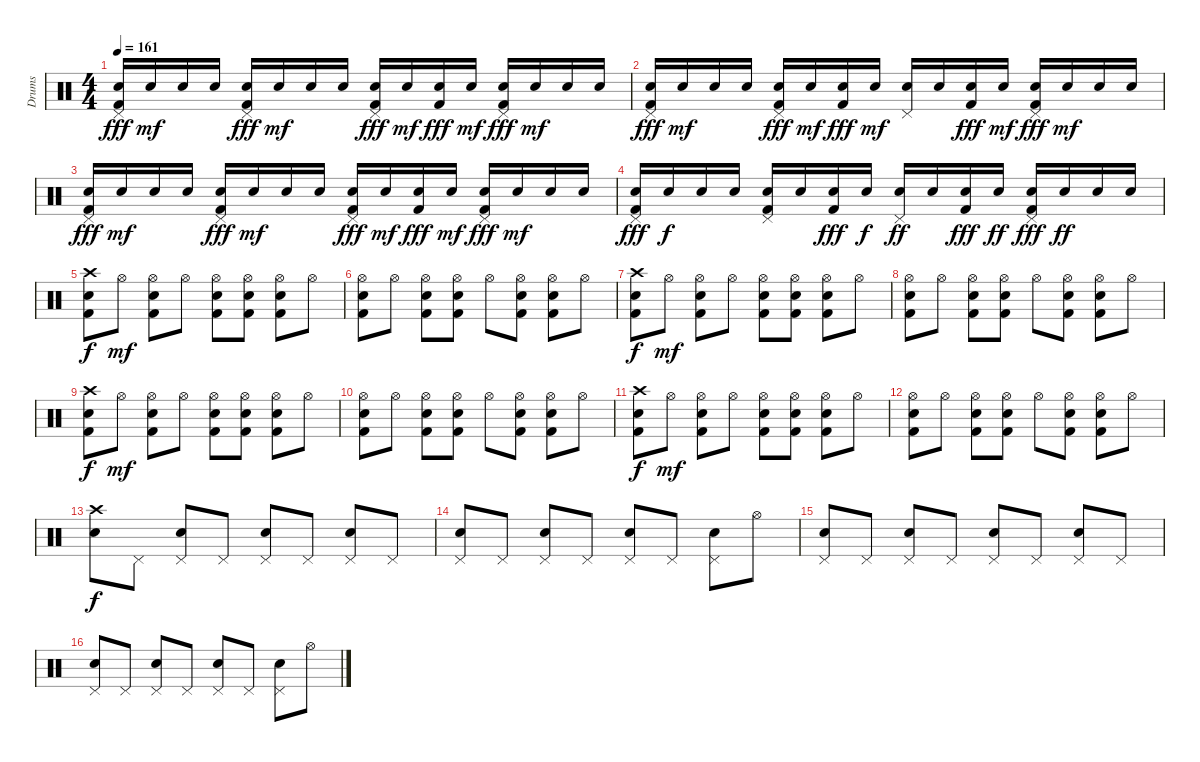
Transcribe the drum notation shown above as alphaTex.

\track ("Drums" "Drums") {instrument percussion}
\staff {score}
\articulation defaults
\ts (4 4)
\tempo 161
\clef neutral
\ks c
("Pedal Hi-Hat (hit)" "Electric Snare (hit)" "Kick (hit) 2").16{dy fff} "Electric Snare (hit)".16{dy mf} "Electric Snare (hit)".16 "Electric Snare (hit)".16 ("Pedal Hi-Hat (hit)" "Electric Snare (hit)" "Kick (hit) 2").16{dy fff} "Electric Snare (hit)".16{dy mf} "Electric Snare (hit)".16 "Electric Snare (hit)".16 ("Pedal Hi-Hat (hit)" "Electric Snare (hit)" "Kick (hit) 2").16{dy fff} "Electric Snare (hit)".16{dy mf} ("Electric Snare (hit)" "Kick (hit) 2").16{dy fff} "Electric Snare (hit)".16{dy mf} ("Pedal Hi-Hat (hit)" "Electric Snare (hit)" "Kick (hit) 2").16{dy fff} "Electric Snare (hit)".16{dy mf} "Electric Snare (hit)".16 "Electric Snare (hit)".16 |
("Pedal Hi-Hat (hit)" "Electric Snare (hit)" "Kick (hit) 2").16{dy fff} "Electric Snare (hit)".16{dy mf} "Electric Snare (hit)".16 "Electric Snare (hit)".16 ("Pedal Hi-Hat (hit)" "Electric Snare (hit)" "Kick (hit) 2").16{dy fff} "Electric Snare (hit)".16{dy mf} ("Electric Snare (hit)" "Kick (hit) 2").16{dy fff} "Electric Snare (hit)".16{dy mf} ("Pedal Hi-Hat (hit)" "Electric Snare (hit)").16 "Electric Snare (hit)".16 ("Electric Snare (hit)" "Kick (hit) 2").16{dy fff} "Electric Snare (hit)".16{dy mf} ("Pedal Hi-Hat (hit)" "Electric Snare (hit)" "Kick (hit) 2").16{dy fff} "Electric Snare (hit)".16{dy mf} "Electric Snare (hit)".16 "Electric Snare (hit)".16 |
("Pedal Hi-Hat (hit)" "Electric Snare (hit)" "Kick (hit) 2").16{dy fff} "Electric Snare (hit)".16{dy mf} "Electric Snare (hit)".16 "Electric Snare (hit)".16 ("Pedal Hi-Hat (hit)" "Electric Snare (hit)" "Kick (hit) 2").16{dy fff} "Electric Snare (hit)".16{dy mf} "Electric Snare (hit)".16 "Electric Snare (hit)".16 ("Pedal Hi-Hat (hit)" "Electric Snare (hit)" "Kick (hit) 2").16{dy fff} "Electric Snare (hit)".16{dy mf} ("Electric Snare (hit)" "Kick (hit) 2").16{dy fff} "Electric Snare (hit)".16{dy mf} ("Pedal Hi-Hat (hit)" "Electric Snare (hit)" "Kick (hit) 2").16{dy fff} "Electric Snare (hit)".16{dy mf} "Electric Snare (hit)".16 "Electric Snare (hit)".16 |
("Pedal Hi-Hat (hit)" "Electric Snare (hit)" "Kick (hit) 2").16{dy fff} "Electric Snare (hit)".16{dy f} "Electric Snare (hit)".16 "Electric Snare (hit)".16 ("Pedal Hi-Hat (hit)" "Electric Snare (hit)" "Kick (hit) 2").16 "Electric Snare (hit)".16 ("Electric Snare (hit)" "Kick (hit) 2").16{dy fff} "Electric Snare (hit)".16{dy f} ("Pedal Hi-Hat (hit)" "Electric Snare (hit)").16{dy ff} "Electric Snare (hit)".16 ("Electric Snare (hit)" "Kick (hit) 2").16{dy fff} "Electric Snare (hit)".16{dy ff} ("Pedal Hi-Hat (hit)" "Electric Snare (hit)" "Kick (hit) 2").16{dy fff} "Electric Snare (hit)".16{dy ff} "Electric Snare (hit)".16 "Electric Snare (hit)".16 |
("Crash high (hit)" "Electric Snare (hit)" "Kick (hit) 2").8{dy f} "Hi-Hat (open)".8{dy mf} ("Hi-Hat (open)" "Electric Snare (hit)" "Kick (hit) 2").8 "Hi-Hat (open)".8 ("Hi-Hat (open)" "Electric Snare (hit)" "Kick (hit) 2").8 ("Hi-Hat (open)" "Electric Snare (hit)" "Kick (hit) 2").8 ("Hi-Hat (open)" "Electric Snare (hit)" "Kick (hit) 2").8 "Hi-Hat (open)".8 |
("Hi-Hat (open)" "Electric Snare (hit)" "Kick (hit) 2").8 "Hi-Hat (open)".8 ("Hi-Hat (open)" "Electric Snare (hit)" "Kick (hit) 2").8 ("Hi-Hat (open)" "Electric Snare (hit)" "Kick (hit) 2").8 "Hi-Hat (open)".8 ("Hi-Hat (open)" "Electric Snare (hit)" "Kick (hit) 2").8 ("Hi-Hat (open)" "Electric Snare (hit)" "Kick (hit) 2").8 "Hi-Hat (open)".8 |
("Crash high (hit)" "Electric Snare (hit)" "Kick (hit) 2").8{dy f} "Hi-Hat (open)".8{dy mf} ("Hi-Hat (open)" "Electric Snare (hit)" "Kick (hit) 2").8 "Hi-Hat (open)".8 ("Hi-Hat (open)" "Electric Snare (hit)" "Kick (hit) 2").8 ("Hi-Hat (open)" "Electric Snare (hit)" "Kick (hit) 2").8 ("Hi-Hat (open)" "Electric Snare (hit)" "Kick (hit) 2").8 "Hi-Hat (open)".8 |
("Hi-Hat (open)" "Electric Snare (hit)" "Kick (hit) 2").8 "Hi-Hat (open)".8 ("Hi-Hat (open)" "Electric Snare (hit)" "Kick (hit) 2").8 ("Hi-Hat (open)" "Electric Snare (hit)" "Kick (hit) 2").8 "Hi-Hat (open)".8 ("Hi-Hat (open)" "Electric Snare (hit)" "Kick (hit) 2").8 ("Hi-Hat (open)" "Electric Snare (hit)" "Kick (hit) 2").8 "Hi-Hat (open)".8 |
("Crash high (hit)" "Electric Snare (hit)" "Kick (hit) 2").8{dy f} "Hi-Hat (open)".8{dy mf} ("Hi-Hat (open)" "Electric Snare (hit)" "Kick (hit) 2").8 "Hi-Hat (open)".8 ("Hi-Hat (open)" "Electric Snare (hit)" "Kick (hit) 2").8 ("Hi-Hat (open)" "Electric Snare (hit)" "Kick (hit) 2").8 ("Hi-Hat (open)" "Electric Snare (hit)" "Kick (hit) 2").8 "Hi-Hat (open)".8 |
("Hi-Hat (open)" "Electric Snare (hit)" "Kick (hit) 2").8 "Hi-Hat (open)".8 ("Hi-Hat (open)" "Electric Snare (hit)" "Kick (hit) 2").8 ("Hi-Hat (open)" "Electric Snare (hit)" "Kick (hit) 2").8 "Hi-Hat (open)".8 ("Hi-Hat (open)" "Electric Snare (hit)" "Kick (hit) 2").8 ("Hi-Hat (open)" "Electric Snare (hit)" "Kick (hit) 2").8 "Hi-Hat (open)".8 |
("Crash high (hit)" "Electric Snare (hit)" "Kick (hit) 2").8{dy f} "Hi-Hat (open)".8{dy mf} ("Hi-Hat (open)" "Electric Snare (hit)" "Kick (hit) 2").8 "Hi-Hat (open)".8 ("Hi-Hat (open)" "Electric Snare (hit)" "Kick (hit) 2").8 ("Hi-Hat (open)" "Electric Snare (hit)" "Kick (hit) 2").8 ("Hi-Hat (open)" "Electric Snare (hit)" "Kick (hit) 2").8 "Hi-Hat (open)".8 |
("Hi-Hat (open)" "Electric Snare (hit)" "Kick (hit) 2").8 "Hi-Hat (open)".8 ("Hi-Hat (open)" "Electric Snare (hit)" "Kick (hit) 2").8 ("Hi-Hat (open)" "Electric Snare (hit)" "Kick (hit) 2").8 "Hi-Hat (open)".8 ("Hi-Hat (open)" "Electric Snare (hit)" "Kick (hit) 2").8 ("Hi-Hat (open)" "Electric Snare (hit)" "Kick (hit) 2").8 "Hi-Hat (open)".8 |
("Crash high (hit)" "Electric Snare (hit)").8{dy f} "Pedal Hi-Hat (hit)".8 ("Pedal Hi-Hat (hit)" "Electric Snare (hit)").8 "Pedal Hi-Hat (hit)".8 ("Pedal Hi-Hat (hit)" "Electric Snare (hit)").8 "Pedal Hi-Hat (hit)".8 ("Pedal Hi-Hat (hit)" "Electric Snare (hit)").8 "Pedal Hi-Hat (hit)".8 |
("Pedal Hi-Hat (hit)" "Electric Snare (hit)").8 "Pedal Hi-Hat (hit)".8 ("Pedal Hi-Hat (hit)" "Electric Snare (hit)").8 "Pedal Hi-Hat (hit)".8 ("Pedal Hi-Hat (hit)" "Electric Snare (hit)").8 "Pedal Hi-Hat (hit)".8 ("Pedal Hi-Hat (hit)" "Electric Snare (hit)").8 "Hi-Hat (open)".8 |
("Pedal Hi-Hat (hit)" "Electric Snare (hit)").8 "Pedal Hi-Hat (hit)".8 ("Pedal Hi-Hat (hit)" "Electric Snare (hit)").8 "Pedal Hi-Hat (hit)".8 ("Pedal Hi-Hat (hit)" "Electric Snare (hit)").8 "Pedal Hi-Hat (hit)".8 ("Pedal Hi-Hat (hit)" "Electric Snare (hit)").8 "Pedal Hi-Hat (hit)".8 |
("Pedal Hi-Hat (hit)" "Electric Snare (hit)").8 "Pedal Hi-Hat (hit)".8 ("Pedal Hi-Hat (hit)" "Electric Snare (hit)").8 "Pedal Hi-Hat (hit)".8 ("Pedal Hi-Hat (hit)" "Electric Snare (hit)").8 "Pedal Hi-Hat (hit)".8 ("Pedal Hi-Hat (hit)" "Electric Snare (hit)").8 "Hi-Hat (open)".8
